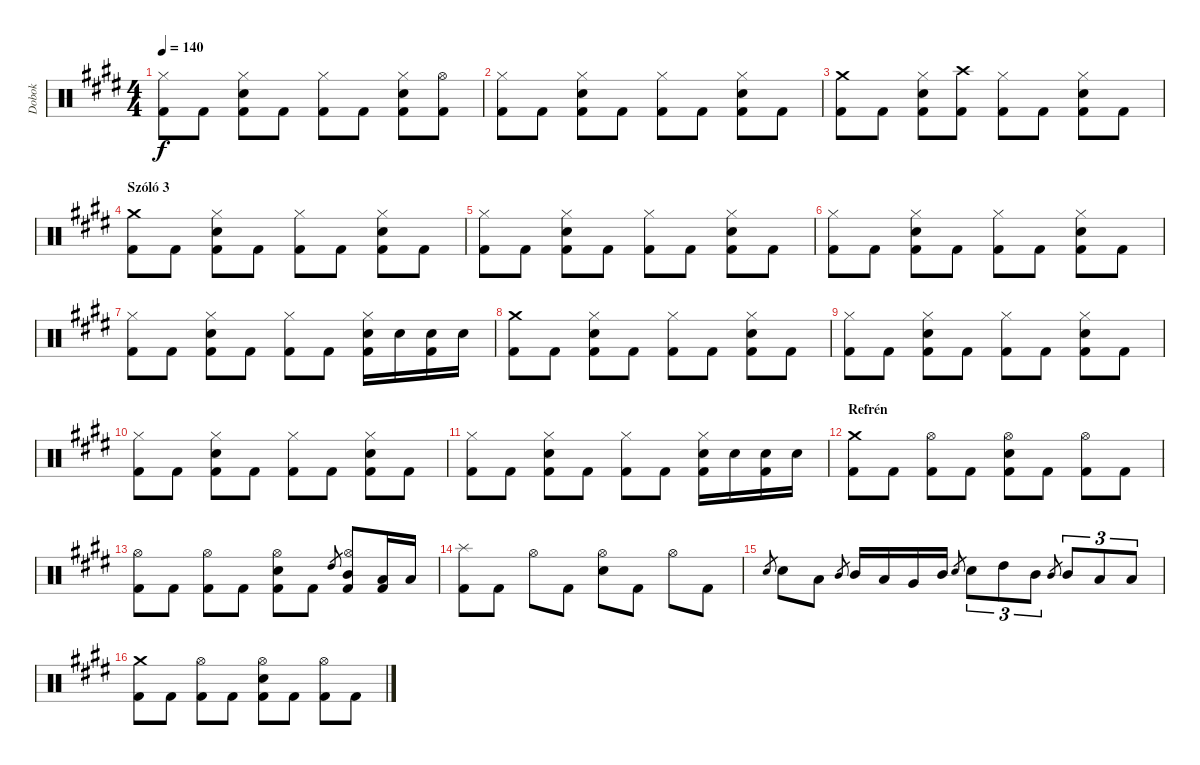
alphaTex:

\track ("Dobok" "Dobok") {instrument percussion}
\staff {score}
\articulation defaults
\ts (4 4)
\tempo 140
\clef neutral
\ks c#minor
("Hi-Hat (closed)" "Kick (hit) 2").8{dy f} "Kick (hit) 2".8 ("Hi-Hat (closed)" "Snare (hit) 2" "Kick (hit) 2").8 "Kick (hit) 2".8 ("Hi-Hat (closed)" "Kick (hit) 2").8 "Kick (hit) 2".8 ("Hi-Hat (closed)" "Snare (hit) 2" "Kick (hit) 2").8 ("Hi-Hat (open)" "Kick (hit) 2").8 |
("Hi-Hat (closed)" "Kick (hit) 2").8 "Kick (hit) 2".8 ("Hi-Hat (closed)" "Snare (hit) 2" "Kick (hit) 2").8 "Kick (hit) 2".8 ("Hi-Hat (closed)" "Kick (hit) 2").8 "Kick (hit) 2".8 ("Hi-Hat (closed)" "Snare (hit) 2" "Kick (hit) 2").8 "Kick (hit) 2".8 |
("Crash medium (hit)" "Kick (hit) 2").8 "Kick (hit) 2".8 ("Hi-Hat (closed)" "Snare (hit) 2" "Kick (hit) 2").8 ("Crash high (hit)" "Kick (hit) 2").8 ("Hi-Hat (closed)" "Kick (hit) 2").8 "Kick (hit) 2".8 ("Hi-Hat (closed)" "Snare (hit) 2" "Kick (hit) 2").8 "Kick (hit) 2".8 |
\section ("" "Szóló 3")
("Crash medium (hit)" "Kick (hit) 2").8 "Kick (hit) 2".8 ("Hi-Hat (closed)" "Snare (hit) 2" "Kick (hit) 2").8 "Kick (hit) 2".8 ("Hi-Hat (closed)" "Kick (hit) 2").8 "Kick (hit) 2".8 ("Hi-Hat (closed)" "Snare (hit) 2" "Kick (hit) 2").8 "Kick (hit) 2".8 |
("Hi-Hat (closed)" "Kick (hit) 2").8 "Kick (hit) 2".8 ("Hi-Hat (closed)" "Snare (hit) 2" "Kick (hit) 2").8 "Kick (hit) 2".8 ("Hi-Hat (closed)" "Kick (hit) 2").8 "Kick (hit) 2".8 ("Hi-Hat (closed)" "Snare (hit) 2" "Kick (hit) 2").8 "Kick (hit) 2".8 |
("Hi-Hat (closed)" "Kick (hit) 2").8 "Kick (hit) 2".8 ("Hi-Hat (closed)" "Snare (hit) 2" "Kick (hit) 2").8 "Kick (hit) 2".8 ("Hi-Hat (closed)" "Kick (hit) 2").8 "Kick (hit) 2".8 ("Hi-Hat (closed)" "Snare (hit) 2" "Kick (hit) 2").8 "Kick (hit) 2".8 |
("Hi-Hat (closed)" "Kick (hit) 2").8 "Kick (hit) 2".8 ("Hi-Hat (closed)" "Snare (hit) 2" "Kick (hit) 2").8 "Kick (hit) 2".8 ("Hi-Hat (closed)" "Kick (hit) 2").8 "Kick (hit) 2".8 ("Hi-Hat (closed)" "Snare (hit) 2" "Kick (hit) 2").16 "Snare (hit) 2".16 ("Snare (hit) 2" "Kick (hit) 2").16 "Snare (hit) 2".16 |
("Crash medium (hit)" "Kick (hit) 2").8 "Kick (hit) 2".8 ("Hi-Hat (closed)" "Snare (hit) 2" "Kick (hit) 2").8 "Kick (hit) 2".8 ("Hi-Hat (closed)" "Kick (hit) 2").8 "Kick (hit) 2".8 ("Hi-Hat (closed)" "Snare (hit) 2" "Kick (hit) 2").8 "Kick (hit) 2".8 |
("Hi-Hat (closed)" "Kick (hit) 2").8 "Kick (hit) 2".8 ("Hi-Hat (closed)" "Snare (hit) 2" "Kick (hit) 2").8 "Kick (hit) 2".8 ("Hi-Hat (closed)" "Kick (hit) 2").8 "Kick (hit) 2".8 ("Hi-Hat (closed)" "Snare (hit) 2" "Kick (hit) 2").8 "Kick (hit) 2".8 |
("Hi-Hat (closed)" "Kick (hit) 2").8 "Kick (hit) 2".8 ("Hi-Hat (closed)" "Snare (hit) 2" "Kick (hit) 2").8 "Kick (hit) 2".8 ("Hi-Hat (closed)" "Kick (hit) 2").8 "Kick (hit) 2".8 ("Hi-Hat (closed)" "Snare (hit) 2" "Kick (hit) 2").8 "Kick (hit) 2".8 |
("Hi-Hat (closed)" "Kick (hit) 2").8 "Kick (hit) 2".8 ("Hi-Hat (closed)" "Snare (hit) 2" "Kick (hit) 2").8 "Kick (hit) 2".8 ("Hi-Hat (closed)" "Kick (hit) 2").8 "Kick (hit) 2".8 ("Hi-Hat (closed)" "Snare (hit) 2" "Kick (hit) 2").16 "Snare (hit) 2".16 ("Snare (hit) 2" "Kick (hit) 2").16 "Snare (hit) 2".16 |
\section ("" "Refrén")
("Crash medium (hit)" "Kick (hit) 2").8 "Kick (hit) 2".8 ("Hi-Hat (open)" "Kick (hit) 2").8 "Kick (hit) 2".8 ("Hi-Hat (open)" "Snare (hit) 2" "Kick (hit) 2").8 "Kick (hit) 2".8 ("Hi-Hat (open)" "Kick (hit) 2").8 "Kick (hit) 2".8 |
("Hi-Hat (open)" "Kick (hit) 2").8 "Kick (hit) 2".8 ("Hi-Hat (open)" "Kick (hit) 2").8 "Kick (hit) 2".8 ("Hi-Hat (open)" "Snare (hit) 2" "Kick (hit) 2").8 "Kick (hit) 2".8 "High Tom (hit)".8{gr} ("Hi-Hat (open)" "Mid Tom (hit)" "Kick (hit) 2").8 ("Low Tom (hit)" "Kick (hit) 2").16 "Low Tom (hit)".16 |
("Splash (hit)" "Kick (hit) 2").8 "Kick (hit) 2".8 "Hi-Hat (open)".8 "Kick (hit) 2".8 ("Hi-Hat (open)" "Snare (hit) 2").8 "Kick (hit) 2".8 "Hi-Hat (open)".8 "Kick (hit) 2".8 |
"Snare (hit) 2".8{gr} "Snare (hit) 2".8 "Low Tom (hit)".8 "Mid Tom (hit)".8{gr} "Mid Tom (hit)".16 "Low Tom (hit)".16 "Very Low Tom (hit)".16 "Mid Tom (hit)".16 "Snare (hit) 2".8{gr} "Snare (hit) 2".8{tu (3 2)} "High Tom (hit)".8{tu (3 2)} "Mid Tom (hit)".8{tu (3 2)} "Mid Tom (hit)".8{gr} "Mid Tom (hit)".8{tu (3 2)} "Low Tom (hit)".8{tu (3 2)} "Low Tom (hit)".8{tu (3 2)} |
("Crash medium (hit)" "Kick (hit) 2").8 "Kick (hit) 2".8 ("Hi-Hat (open)" "Kick (hit) 2").8 "Kick (hit) 2".8 ("Hi-Hat (open)" "Snare (hit) 2" "Kick (hit) 2").8 "Kick (hit) 2".8 ("Hi-Hat (open)" "Kick (hit) 2").8 "Kick (hit) 2".8
